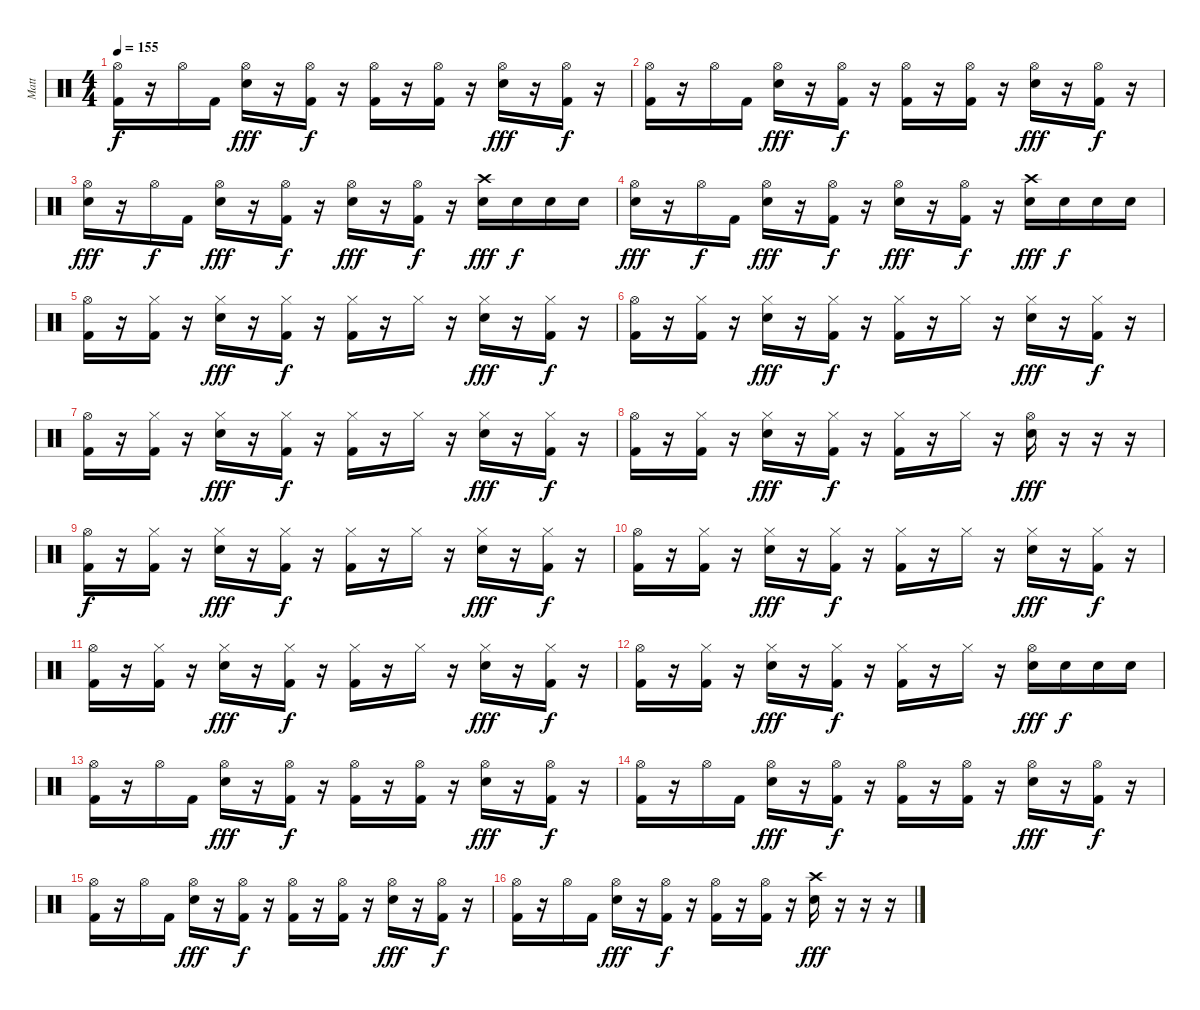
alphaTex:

\track ("Matt" "Matt") {instrument percussion}
\staff {score}
\articulation defaults
\ts (4 4)
\tempo 155
\clef neutral
\ks c
("Hi-Hat (open)" "Kick (hit) 2").16{dy f} r.16 "Hi-Hat (open)".16 "Kick (hit) 2".16 ("Hi-Hat (open)" "Snare (hit) 2").16{dy fff} r.16 ("Hi-Hat (open)" "Kick (hit) 2").16{dy f} r.16 ("Hi-Hat (open)" "Kick (hit) 2").16 r.16 ("Hi-Hat (open)" "Kick (hit) 2").16 r.16 ("Hi-Hat (open)" "Snare (hit) 2").16{dy fff} r.16 ("Hi-Hat (open)" "Kick (hit) 2").16{dy f} r.16 |
("Hi-Hat (open)" "Kick (hit) 2").16 r.16 "Hi-Hat (open)".16 "Kick (hit) 2".16 ("Hi-Hat (open)" "Snare (hit) 2").16{dy fff} r.16 ("Hi-Hat (open)" "Kick (hit) 2").16{dy f} r.16 ("Hi-Hat (open)" "Kick (hit) 2").16 r.16 ("Hi-Hat (open)" "Kick (hit) 2").16 r.16 ("Hi-Hat (open)" "Snare (hit) 2").16{dy fff} r.16 ("Hi-Hat (open)" "Kick (hit) 2").16{dy f} r.16 |
("Hi-Hat (open)" "Snare (hit) 2").16{dy fff} r.16 "Hi-Hat (open)".16{dy f} "Kick (hit) 2".16 ("Hi-Hat (open)" "Snare (hit) 2").16{dy fff} r.16 ("Hi-Hat (open)" "Kick (hit) 2").16{dy f} r.16 ("Hi-Hat (open)" "Snare (hit) 2").16{dy fff} r.16 ("Hi-Hat (open)" "Kick (hit) 2").16{dy f} r.16 ("Crash high (hit)" "Snare (hit) 2").16{dy fff} "Snare (hit) 2".16{dy f} "Snare (hit) 2".16 "Snare (hit) 2".16 |
("Hi-Hat (open)" "Snare (hit) 2").16{dy fff} r.16 "Hi-Hat (open)".16{dy f} "Kick (hit) 2".16 ("Hi-Hat (open)" "Snare (hit) 2").16{dy fff} r.16 ("Hi-Hat (open)" "Kick (hit) 2").16{dy f} r.16 ("Hi-Hat (open)" "Snare (hit) 2").16{dy fff} r.16 ("Hi-Hat (open)" "Kick (hit) 2").16{dy f} r.16 ("Crash high (hit)" "Snare (hit) 2").16{dy fff} "Snare (hit) 2".16{dy f} "Snare (hit) 2".16 "Snare (hit) 2".16 |
("Hi-Hat (open)" "Kick (hit) 2").16 r.16 ("Hi-Hat (closed)" "Kick (hit) 2").16 r.16 ("Hi-Hat (closed)" "Snare (hit) 2").16{dy fff} r.16 ("Hi-Hat (closed)" "Kick (hit) 2").16{dy f} r.16 ("Hi-Hat (closed)" "Kick (hit) 2").16 r.16 "Hi-Hat (closed)".16 r.16 ("Hi-Hat (closed)" "Snare (hit) 2").16{dy fff} r.16 ("Hi-Hat (closed)" "Kick (hit) 2").16{dy f} r.16 |
("Hi-Hat (open)" "Kick (hit) 2").16 r.16 ("Hi-Hat (closed)" "Kick (hit) 2").16 r.16 ("Hi-Hat (closed)" "Snare (hit) 2").16{dy fff} r.16 ("Hi-Hat (closed)" "Kick (hit) 2").16{dy f} r.16 ("Hi-Hat (closed)" "Kick (hit) 2").16 r.16 "Hi-Hat (closed)".16 r.16 ("Hi-Hat (closed)" "Snare (hit) 2").16{dy fff} r.16 ("Hi-Hat (closed)" "Kick (hit) 2").16{dy f} r.16 |
("Hi-Hat (open)" "Kick (hit) 2").16 r.16 ("Hi-Hat (closed)" "Kick (hit) 2").16 r.16 ("Hi-Hat (closed)" "Snare (hit) 2").16{dy fff} r.16 ("Hi-Hat (closed)" "Kick (hit) 2").16{dy f} r.16 ("Hi-Hat (closed)" "Kick (hit) 2").16 r.16 "Hi-Hat (closed)".16 r.16 ("Hi-Hat (closed)" "Snare (hit) 2").16{dy fff} r.16 ("Hi-Hat (closed)" "Kick (hit) 2").16{dy f} r.16 |
("Hi-Hat (open)" "Kick (hit) 2").16 r.16 ("Hi-Hat (closed)" "Kick (hit) 2").16 r.16 ("Hi-Hat (closed)" "Snare (hit) 2").16{dy fff} r.16 ("Hi-Hat (closed)" "Kick (hit) 2").16{dy f} r.16 ("Hi-Hat (closed)" "Kick (hit) 2").16 r.16 "Hi-Hat (closed)".16 r.16 ("Hi-Hat (open)" "Snare (hit) 2").16{dy fff} r.16 r.16 r.16 |
("Hi-Hat (open)" "Kick (hit) 2").16{dy f} r.16 ("Hi-Hat (closed)" "Kick (hit) 2").16 r.16 ("Hi-Hat (closed)" "Snare (hit) 2").16{dy fff} r.16 ("Hi-Hat (closed)" "Kick (hit) 2").16{dy f} r.16 ("Hi-Hat (closed)" "Kick (hit) 2").16 r.16 "Hi-Hat (closed)".16 r.16 ("Hi-Hat (closed)" "Snare (hit) 2").16{dy fff} r.16 ("Hi-Hat (closed)" "Kick (hit) 2").16{dy f} r.16 |
("Hi-Hat (open)" "Kick (hit) 2").16 r.16 ("Hi-Hat (closed)" "Kick (hit) 2").16 r.16 ("Hi-Hat (closed)" "Snare (hit) 2").16{dy fff} r.16 ("Hi-Hat (closed)" "Kick (hit) 2").16{dy f} r.16 ("Hi-Hat (closed)" "Kick (hit) 2").16 r.16 "Hi-Hat (closed)".16 r.16 ("Hi-Hat (closed)" "Snare (hit) 2").16{dy fff} r.16 ("Hi-Hat (closed)" "Kick (hit) 2").16{dy f} r.16 |
("Hi-Hat (open)" "Kick (hit) 2").16 r.16 ("Hi-Hat (closed)" "Kick (hit) 2").16 r.16 ("Hi-Hat (closed)" "Snare (hit) 2").16{dy fff} r.16 ("Hi-Hat (closed)" "Kick (hit) 2").16{dy f} r.16 ("Hi-Hat (closed)" "Kick (hit) 2").16 r.16 "Hi-Hat (closed)".16 r.16 ("Hi-Hat (closed)" "Snare (hit) 2").16{dy fff} r.16 ("Hi-Hat (closed)" "Kick (hit) 2").16{dy f} r.16 |
("Hi-Hat (open)" "Kick (hit) 2").16 r.16 ("Hi-Hat (closed)" "Kick (hit) 2").16 r.16 ("Hi-Hat (closed)" "Snare (hit) 2").16{dy fff} r.16 ("Hi-Hat (closed)" "Kick (hit) 2").16{dy f} r.16 ("Hi-Hat (closed)" "Kick (hit) 2").16 r.16 "Hi-Hat (closed)".16 r.16 ("Hi-Hat (open)" "Snare (hit) 2").16{dy fff} "Snare (hit) 2".16{dy f} "Snare (hit) 2".16 "Snare (hit) 2".16 |
("Hi-Hat (open)" "Kick (hit) 2").16 r.16 "Hi-Hat (open)".16 "Kick (hit) 2".16 ("Hi-Hat (open)" "Snare (hit) 2").16{dy fff} r.16 ("Hi-Hat (open)" "Kick (hit) 2").16{dy f} r.16 ("Hi-Hat (open)" "Kick (hit) 2").16 r.16 ("Hi-Hat (open)" "Kick (hit) 2").16 r.16 ("Hi-Hat (open)" "Snare (hit) 2").16{dy fff} r.16 ("Hi-Hat (open)" "Kick (hit) 2").16{dy f} r.16 |
("Hi-Hat (open)" "Kick (hit) 2").16 r.16 "Hi-Hat (open)".16 "Kick (hit) 2".16 ("Hi-Hat (open)" "Snare (hit) 2").16{dy fff} r.16 ("Hi-Hat (open)" "Kick (hit) 2").16{dy f} r.16 ("Hi-Hat (open)" "Kick (hit) 2").16 r.16 ("Hi-Hat (open)" "Kick (hit) 2").16 r.16 ("Hi-Hat (open)" "Snare (hit) 2").16{dy fff} r.16 ("Hi-Hat (open)" "Kick (hit) 2").16{dy f} r.16 |
("Hi-Hat (open)" "Kick (hit) 2").16 r.16 "Hi-Hat (open)".16 "Kick (hit) 2".16 ("Hi-Hat (open)" "Snare (hit) 2").16{dy fff} r.16 ("Hi-Hat (open)" "Kick (hit) 2").16{dy f} r.16 ("Hi-Hat (open)" "Kick (hit) 2").16 r.16 ("Hi-Hat (open)" "Kick (hit) 2").16 r.16 ("Hi-Hat (open)" "Snare (hit) 2").16{dy fff} r.16 ("Hi-Hat (open)" "Kick (hit) 2").16{dy f} r.16 |
("Hi-Hat (open)" "Kick (hit) 2").16 r.16 "Hi-Hat (open)".16 "Kick (hit) 2".16 ("Hi-Hat (open)" "Snare (hit) 2").16{dy fff} r.16 ("Hi-Hat (open)" "Kick (hit) 2").16{dy f} r.16 ("Hi-Hat (open)" "Kick (hit) 2").16 r.16 ("Hi-Hat (open)" "Kick (hit) 2").16 r.16 ("Crash high (hit)" "Snare (hit) 2").16{dy fff} r.16 r.16 r.16
